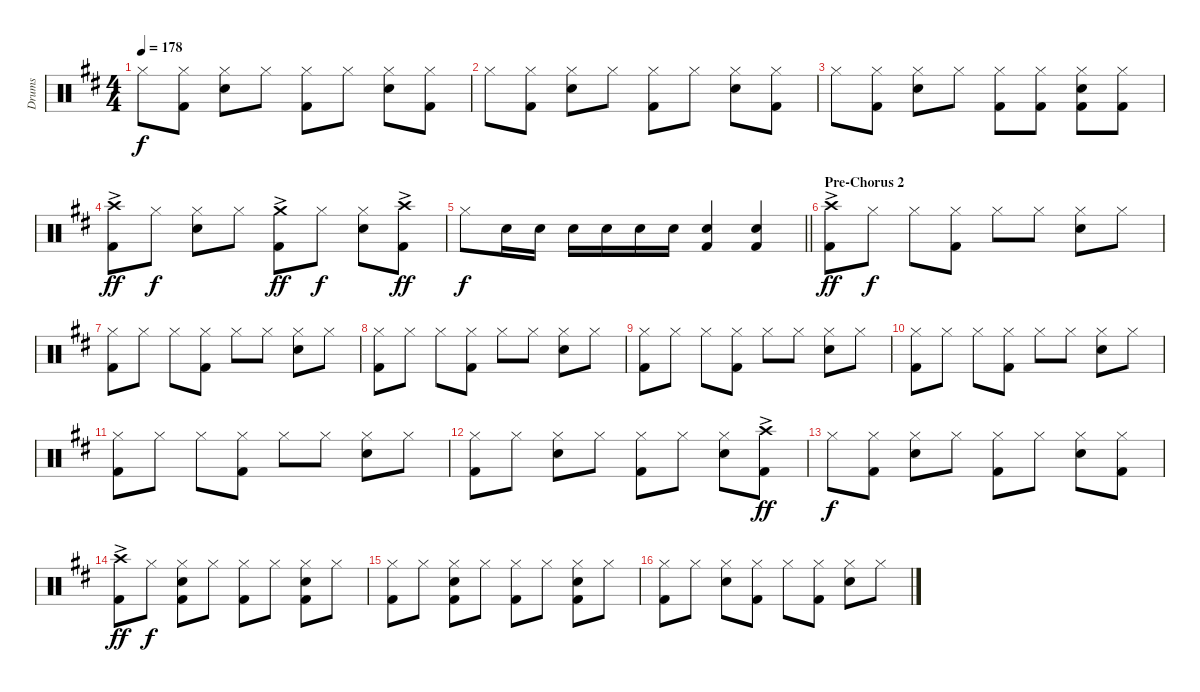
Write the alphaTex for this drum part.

\track ("Drums" "Drums") {instrument percussion}
\staff {score}
\articulation defaults
\ts (4 4)
\tempo 178
\clef neutral
\ks d "Hi-Hat (closed)".8{dy f}
("Hi-Hat (closed)" "Kick (hit) 2").8 ("Hi-Hat (closed)" "Electric Snare (hit)").8 "Hi-Hat (closed)".8 ("Hi-Hat (closed)" "Kick (hit) 2").8 "Hi-Hat (closed)".8 ("Hi-Hat (closed)" "Electric Snare (hit)").8 ("Hi-Hat (closed)" "Kick (hit) 2").8 |
"Hi-Hat (closed)".8 ("Hi-Hat (closed)" "Kick (hit) 2").8 ("Hi-Hat (closed)" "Electric Snare (hit)").8 "Hi-Hat (closed)".8 ("Hi-Hat (closed)" "Kick (hit) 2").8 "Hi-Hat (closed)".8 ("Hi-Hat (closed)" "Electric Snare (hit)").8 ("Hi-Hat (closed)" "Kick (hit) 2").8 |
"Hi-Hat (closed)".8 ("Hi-Hat (closed)" "Kick (hit) 2").8 ("Hi-Hat (closed)" "Electric Snare (hit)").8 "Hi-Hat (closed)".8 ("Hi-Hat (closed)" "Kick (hit) 2").8 ("Hi-Hat (closed)" "Kick (hit) 2").8 ("Hi-Hat (closed)" "Electric Snare (hit)" "Kick (hit) 2").8 ("Hi-Hat (closed)" "Kick (hit) 2").8 |
("Crash high (hit)"{ac} "Kick (hit) 2").8{dy ff} "Hi-Hat (closed)".8{dy f} ("Hi-Hat (closed)" "Electric Snare (hit)").8 "Hi-Hat (closed)".8 ("Crash medium (hit)"{ac} "Kick (hit) 2").8{dy ff} "Hi-Hat (closed)".8{dy f} ("Hi-Hat (closed)" "Electric Snare (hit)").8 ("Crash high (hit)"{ac} "Kick (hit) 2").8{dy ff} |
\barLineRight lightlight "Hi-Hat (closed)".8{dy f} "Electric Snare (hit)".16 "Electric Snare (hit)".16 "Electric Snare (hit)".16 "Electric Snare (hit)".16 "Electric Snare (hit)".16 "Electric Snare (hit)".16
("Electric Snare (hit)" "Kick (hit) 2").4 ("Electric Snare (hit)" "Kick (hit) 2").4 |
\section ("" "Pre-Chorus 2")
("Crash high (hit)"{ac} "Kick (hit) 2").8{dy ff} "Hi-Hat (closed)".8{dy f} "Hi-Hat (closed)".8 ("Hi-Hat (closed)" "Kick (hit) 2").8 "Hi-Hat (closed)".8 "Hi-Hat (closed)".8 ("Hi-Hat (closed)" "Electric Snare (hit)").8 "Hi-Hat (closed)".8 |
("Hi-Hat (closed)" "Kick (hit) 2").8 "Hi-Hat (closed)".8 "Hi-Hat (closed)".8 ("Hi-Hat (closed)" "Kick (hit) 2").8 "Hi-Hat (closed)".8 "Hi-Hat (closed)".8 ("Hi-Hat (closed)" "Electric Snare (hit)").8 "Hi-Hat (closed)".8 |
("Hi-Hat (closed)" "Kick (hit) 2").8 "Hi-Hat (closed)".8 "Hi-Hat (closed)".8 ("Hi-Hat (closed)" "Kick (hit) 2").8 "Hi-Hat (closed)".8 "Hi-Hat (closed)".8 ("Hi-Hat (closed)" "Electric Snare (hit)").8 "Hi-Hat (closed)".8 |
("Hi-Hat (closed)" "Kick (hit) 2").8 "Hi-Hat (closed)".8 "Hi-Hat (closed)".8 ("Hi-Hat (closed)" "Kick (hit) 2").8 "Hi-Hat (closed)".8 "Hi-Hat (closed)".8 ("Hi-Hat (closed)" "Electric Snare (hit)").8 "Hi-Hat (closed)".8 |
("Hi-Hat (closed)" "Kick (hit) 2").8 "Hi-Hat (closed)".8 "Hi-Hat (closed)".8 ("Hi-Hat (closed)" "Kick (hit) 2").8 "Hi-Hat (closed)".8 "Hi-Hat (closed)".8 ("Hi-Hat (closed)" "Electric Snare (hit)").8 "Hi-Hat (closed)".8 |
("Hi-Hat (closed)" "Kick (hit) 2").8 "Hi-Hat (closed)".8 "Hi-Hat (closed)".8 ("Hi-Hat (closed)" "Kick (hit) 2").8 "Hi-Hat (closed)".8 "Hi-Hat (closed)".8 ("Hi-Hat (closed)" "Electric Snare (hit)").8 "Hi-Hat (closed)".8 |
("Hi-Hat (closed)" "Kick (hit) 2").8 "Hi-Hat (closed)".8 ("Hi-Hat (closed)" "Electric Snare (hit)").8 "Hi-Hat (closed)".8 ("Hi-Hat (closed)" "Kick (hit) 2").8 "Hi-Hat (closed)".8 ("Hi-Hat (closed)" "Electric Snare (hit)").8 ("Crash high (hit)"{ac} "Kick (hit) 2").8{dy ff} |
"Hi-Hat (closed)".8{dy f} ("Hi-Hat (closed)" "Kick (hit) 2").8 ("Hi-Hat (closed)" "Electric Snare (hit)").8 "Hi-Hat (closed)".8 ("Hi-Hat (closed)" "Kick (hit) 2").8 "Hi-Hat (closed)".8 ("Hi-Hat (closed)" "Electric Snare (hit)").8 ("Hi-Hat (closed)" "Kick (hit) 2").8 |
("Crash high (hit)"{ac} "Kick (hit) 2").8{dy ff} "Hi-Hat (closed)".8{dy f} ("Hi-Hat (closed)" "Electric Snare (hit)" "Kick (hit) 2").8 "Hi-Hat (closed)".8 ("Hi-Hat (closed)" "Kick (hit) 2").8 "Hi-Hat (closed)".8 ("Hi-Hat (closed)" "Electric Snare (hit)" "Kick (hit) 2").8 "Hi-Hat (closed)".8 |
("Hi-Hat (closed)" "Kick (hit) 2").8 "Hi-Hat (closed)".8 ("Hi-Hat (closed)" "Electric Snare (hit)" "Kick (hit) 2").8 "Hi-Hat (closed)".8 ("Hi-Hat (closed)" "Kick (hit) 2").8 "Hi-Hat (closed)".8 ("Hi-Hat (closed)" "Electric Snare (hit)" "Kick (hit) 2").8 "Hi-Hat (closed)".8 |
("Hi-Hat (closed)" "Kick (hit) 2").8 "Hi-Hat (closed)".8 ("Hi-Hat (closed)" "Electric Snare (hit)").8 ("Hi-Hat (closed)" "Kick (hit) 2").8 "Hi-Hat (closed)".8 ("Hi-Hat (closed)" "Kick (hit) 2").8 ("Hi-Hat (closed)" "Electric Snare (hit)").8 "Hi-Hat (closed)".8
